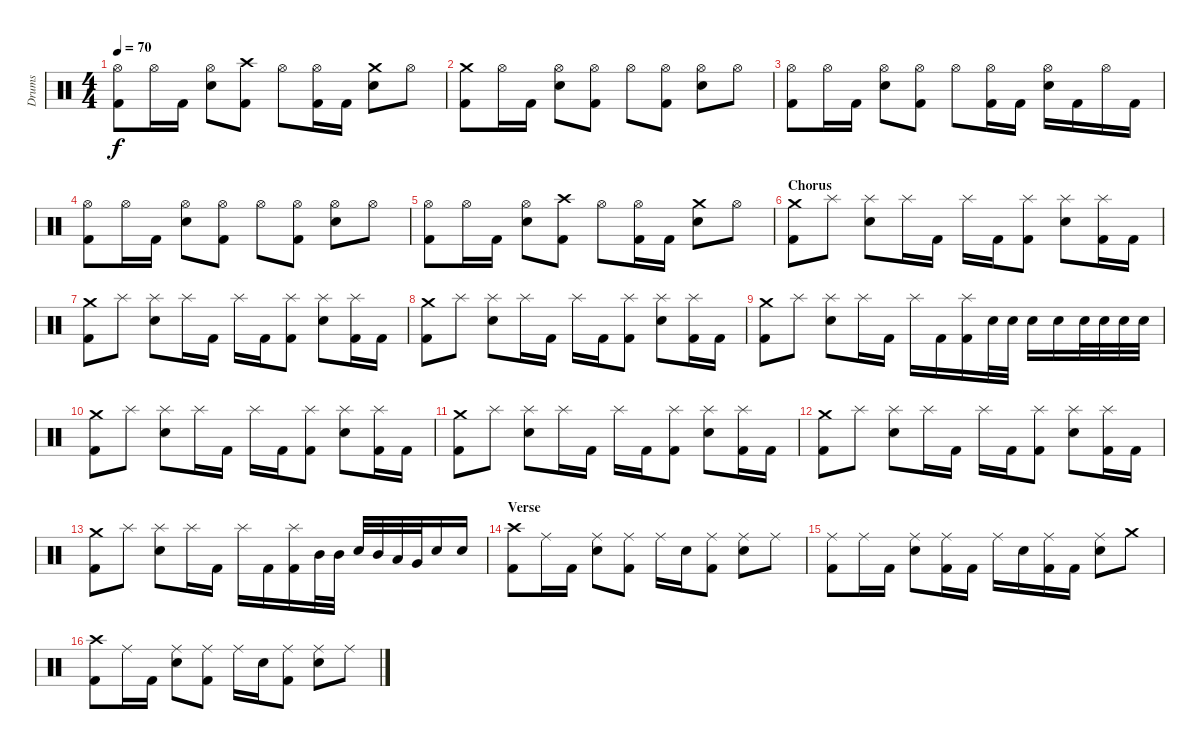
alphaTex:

\track ("Drums" "Drums") {instrument percussion}
\staff {score}
\articulation defaults
\ts (4 4)
\tempo 70
\clef neutral
\ks c
("Hi-Hat (open)" "Kick (hit) 2").8{dy f} "Hi-Hat (open)".16 "Kick (hit) 2".16 ("Hi-Hat (open)" "Electric Snare (hit)").8 ("Crash high (hit)" "Kick (hit) 2").8 "Hi-Hat (open)".8 ("Hi-Hat (open)" "Kick (hit) 2").16 "Kick (hit) 2".16 ("Crash medium (hit)" "Electric Snare (hit)").8 "Hi-Hat (open)".8 |
("Crash medium (hit)" "Kick (hit) 2").8 "Hi-Hat (open)".16 "Kick (hit) 2".16 ("Hi-Hat (open)" "Electric Snare (hit)").8 ("Hi-Hat (open)" "Kick (hit) 2").8 "Hi-Hat (open)".8 ("Hi-Hat (open)" "Kick (hit) 2").8 ("Hi-Hat (open)" "Electric Snare (hit)").8 "Hi-Hat (open)".8 |
("Hi-Hat (open)" "Kick (hit) 2").8 "Hi-Hat (open)".16 "Kick (hit) 2".16 ("Hi-Hat (open)" "Electric Snare (hit)").8 ("Hi-Hat (open)" "Kick (hit) 2").8 "Hi-Hat (open)".8 ("Hi-Hat (open)" "Kick (hit) 2").16 "Kick (hit) 2".16 ("Hi-Hat (open)" "Electric Snare (hit)").16 "Kick (hit) 2".16 "Hi-Hat (open)".16 "Kick (hit) 2".16 |
("Hi-Hat (open)" "Kick (hit) 2").8 "Hi-Hat (open)".16 "Kick (hit) 2".16 ("Hi-Hat (open)" "Electric Snare (hit)").8 ("Hi-Hat (open)" "Kick (hit) 2").8 "Hi-Hat (open)".8 ("Hi-Hat (open)" "Kick (hit) 2").8 ("Hi-Hat (open)" "Electric Snare (hit)").8 "Hi-Hat (open)".8 |
("Hi-Hat (open)" "Kick (hit) 2").8 "Hi-Hat (open)".16 "Kick (hit) 2".16 ("Hi-Hat (open)" "Electric Snare (hit)").8 ("Crash high (hit)" "Kick (hit) 2").8 "Hi-Hat (open)".8 ("Hi-Hat (open)" "Kick (hit) 2").16 "Kick (hit) 2".16 ("Crash medium (hit)" "Electric Snare (hit)").8 "Hi-Hat (open)".8 |
\section ("" "Chorus")
("Crash medium (hit)" "Kick (hit) 2").8 "Splash (hit)".8 ("Splash (hit)" "Electric Snare (hit)").8 "Splash (hit)".16 "Kick (hit) 2".16 "Splash (hit)".16 "Kick (hit) 2".16 ("Splash (hit)" "Kick (hit) 2").8 ("Splash (hit)" "Electric Snare (hit)").8 ("Splash (hit)" "Kick (hit) 2").16 "Kick (hit) 2".16 |
("Crash medium (hit)" "Kick (hit) 2").8 "Splash (hit)".8 ("Splash (hit)" "Electric Snare (hit)").8 "Splash (hit)".16 "Kick (hit) 2".16 "Splash (hit)".16 "Kick (hit) 2".16 ("Splash (hit)" "Kick (hit) 2").8 ("Splash (hit)" "Electric Snare (hit)").8 ("Splash (hit)" "Kick (hit) 2").16 "Kick (hit) 2".16 |
("Crash medium (hit)" "Kick (hit) 2").8 "Splash (hit)".8 ("Splash (hit)" "Electric Snare (hit)").8 "Splash (hit)".16 "Kick (hit) 2".16 "Splash (hit)".16 "Kick (hit) 2".16 ("Splash (hit)" "Kick (hit) 2").8 ("Splash (hit)" "Electric Snare (hit)").8 ("Splash (hit)" "Kick (hit) 2").16 "Kick (hit) 2".16 |
("Crash medium (hit)" "Kick (hit) 2").8 "Splash (hit)".8 ("Splash (hit)" "Electric Snare (hit)").8 "Splash (hit)".16 "Kick (hit) 2".16 "Splash (hit)".16 "Kick (hit) 2".16 ("Splash (hit)" "Kick (hit) 2").16 "Electric Snare (hit)".32 "Electric Snare (hit)".32 "Electric Snare (hit)".16 "Electric Snare (hit)".16 "Electric Snare (hit)".32 "Electric Snare (hit)".32 "Electric Snare (hit)".32 "Electric Snare (hit)".32 |
("Crash medium (hit)" "Kick (hit) 2").8 "Splash (hit)".8 ("Splash (hit)" "Electric Snare (hit)").8 "Splash (hit)".16 "Kick (hit) 2".16 "Splash (hit)".16 "Kick (hit) 2".16 ("Splash (hit)" "Kick (hit) 2").8 ("Splash (hit)" "Electric Snare (hit)").8 ("Splash (hit)" "Kick (hit) 2").16 "Kick (hit) 2".16 |
("Crash medium (hit)" "Kick (hit) 2").8 "Splash (hit)".8 ("Splash (hit)" "Electric Snare (hit)").8 "Splash (hit)".16 "Kick (hit) 2".16 "Splash (hit)".16 "Kick (hit) 2".16 ("Splash (hit)" "Kick (hit) 2").8 ("Splash (hit)" "Electric Snare (hit)").8 ("Splash (hit)" "Kick (hit) 2").16 "Kick (hit) 2".16 |
("Crash medium (hit)" "Kick (hit) 2").8 "Splash (hit)".8 ("Splash (hit)" "Electric Snare (hit)").8 "Splash (hit)".16 "Kick (hit) 2".16 "Splash (hit)".16 "Kick (hit) 2".16 ("Splash (hit)" "Kick (hit) 2").8 ("Splash (hit)" "Electric Snare (hit)").8 ("Splash (hit)" "Kick (hit) 2").16 "Kick (hit) 2".16 |
("Crash medium (hit)" "Kick (hit) 2").8 "Splash (hit)".8 ("Splash (hit)" "Electric Snare (hit)").8 "Splash (hit)".16 "Kick (hit) 2".16 "Splash (hit)".16 "Kick (hit) 2".16 ("Splash (hit)" "Kick (hit) 2").16 "Mid Tom (hit)".32 "Mid Tom (hit)".32 "Electric Snare (hit)".32 "Mid Tom (hit)".32 "Low Tom (hit)".32 "Very Low Tom (hit)".32 "Electric Snare (hit)".16 "Electric Snare (hit)".16 |
\section ("" "Verse")
("Crash high (hit)" "Kick (hit) 2").8 "Ride (middle)".16 "Kick (hit) 2".16 ("Ride (middle)" "Electric Snare (hit)").8 ("Ride (middle)" "Kick (hit) 2").8 "Ride (middle)".16 "Electric Snare (hit)".16 ("Ride (middle)" "Kick (hit) 2").8 ("Ride (middle)" "Electric Snare (hit)").8 "Ride (middle)".8 |
("Ride (middle)" "Kick (hit) 2").8 "Ride (middle)".16 "Kick (hit) 2".16 ("Ride (middle)" "Electric Snare (hit)").8 ("Ride (middle)" "Kick (hit) 2").16 "Kick (hit) 2".16 "Ride (middle)".16 "Electric Snare (hit)".16 ("Ride (middle)" "Kick (hit) 2").16 "Kick (hit) 2".16 ("Ride (middle)" "Electric Snare (hit)").8 "Crash medium (hit)".8 |
("Crash high (hit)" "Kick (hit) 2").8 "Ride (middle)".16 "Kick (hit) 2".16 ("Ride (middle)" "Electric Snare (hit)").8 ("Ride (middle)" "Kick (hit) 2").8 "Ride (middle)".16 "Electric Snare (hit)".16 ("Ride (middle)" "Kick (hit) 2").8 ("Ride (middle)" "Electric Snare (hit)").8 "Ride (middle)".8
